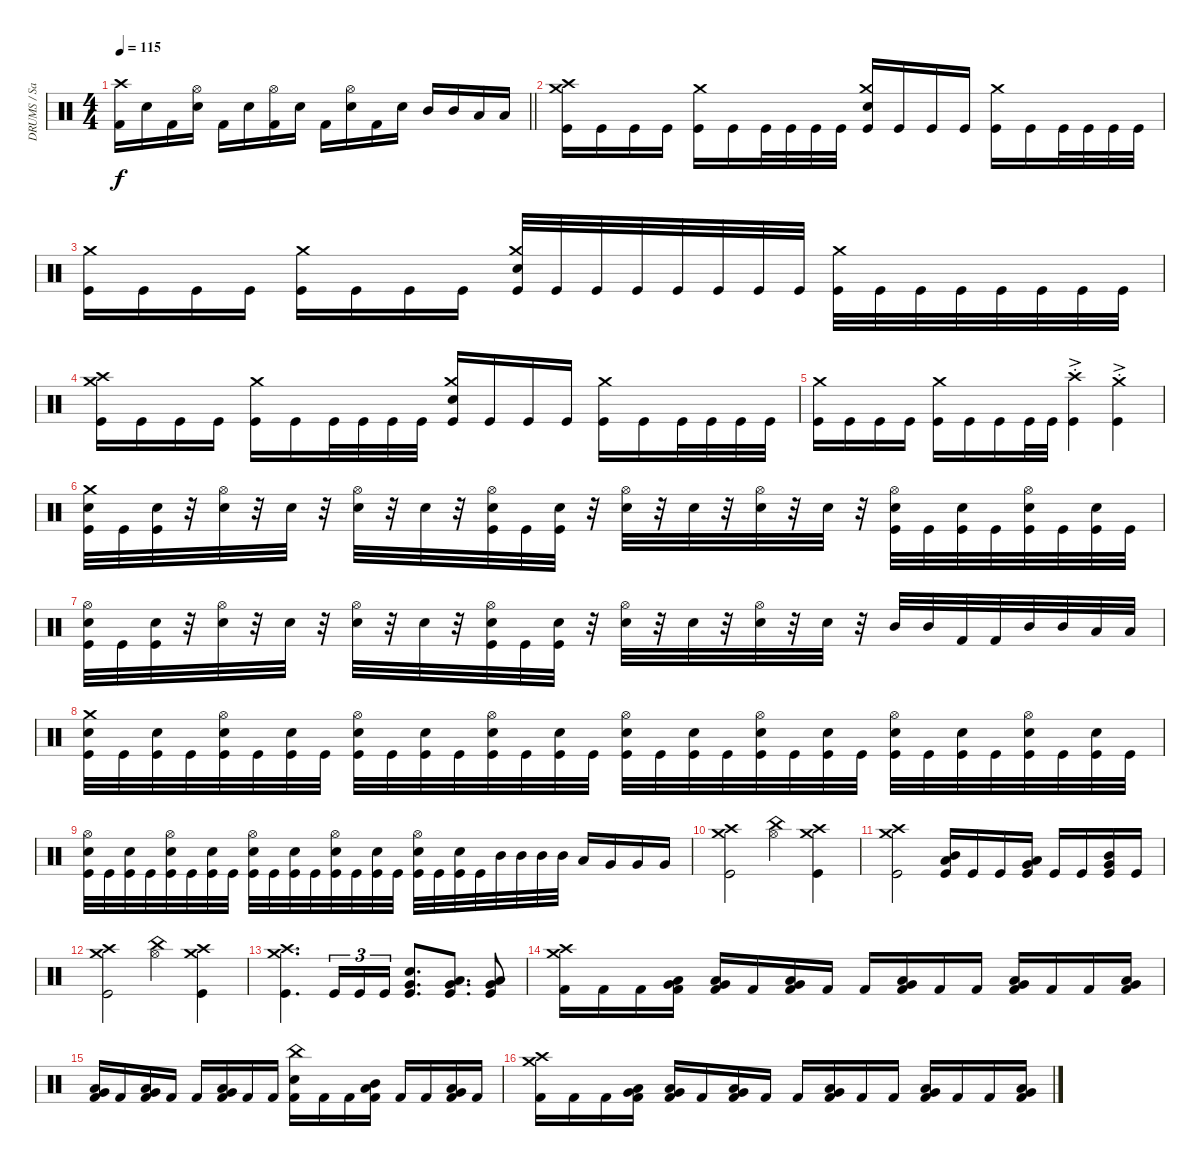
\track ("DRUMS / Sasha" "DRUMS / Sa") {instrument percussion}
\staff {score}
\articulation defaults
\ts (4 4)
\tempo 115
\clef neutral
\barLineRight lightlight
\ks c
("Crash high (hit)" "Kick (hit) 2").16{dy f} "Electric Snare (hit)".16 "Kick (hit) 2".16 ("Hi-Hat (open)" "Electric Snare (hit)").16 "Kick (hit) 2".16 "Electric Snare (hit)".16 ("Hi-Hat (open)" "Kick (hit) 2").16 "Electric Snare (hit)".16 "Kick (hit) 2".16 ("Hi-Hat (open)" "Electric Snare (hit)").16 "Kick (hit) 2".16 "Electric Snare (hit)".16 "Mid Tom (hit)".16 "Mid Tom (hit)".16 "Low Tom (hit)".16 "Low Tom (hit)".16 |
("Kick (hit)" "Crash high (hit)" "Crash medium (hit)").16 "Kick (hit)".16 "Kick (hit)".16 "Kick (hit)".16 ("Kick (hit)" "Crash medium (hit)").16 "Kick (hit)".16 "Kick (hit)".32 "Kick (hit)".32 "Kick (hit)".32 "Kick (hit)".32 ("Kick (hit)" "Crash medium (hit)" "Snare (hit) 2").16 "Kick (hit)".16 "Kick (hit)".16 "Kick (hit)".16 ("Kick (hit)" "Crash medium (hit)").16 "Kick (hit)".16 "Kick (hit)".32 "Kick (hit)".32 "Kick (hit)".32 "Kick (hit)".32 |
("Kick (hit)" "Crash medium (hit)").16 "Kick (hit)".16 "Kick (hit)".16 "Kick (hit)".16 ("Kick (hit)" "Crash medium (hit)").16 "Kick (hit)".16 "Kick (hit)".16 "Kick (hit)".16 ("Kick (hit)" "Crash medium (hit)" "Snare (hit) 2").32 "Kick (hit)".32 "Kick (hit)".32 "Kick (hit)".32 "Kick (hit)".32 "Kick (hit)".32 "Kick (hit)".32 "Kick (hit)".32 ("Kick (hit)" "Crash medium (hit)").32 "Kick (hit)".32 "Kick (hit)".32 "Kick (hit)".32 "Kick (hit)".32 "Kick (hit)".32 "Kick (hit)".32 "Kick (hit)".32 |
("Kick (hit)" "Crash high (hit)" "Crash medium (hit)").16 "Kick (hit)".16 "Kick (hit)".16 "Kick (hit)".16 ("Kick (hit)" "Crash medium (hit)").16 "Kick (hit)".16 "Kick (hit)".32 "Kick (hit)".32 "Kick (hit)".32 "Kick (hit)".32 ("Kick (hit)" "Crash medium (hit)" "Snare (hit) 2").16 "Kick (hit)".16 "Kick (hit)".16 "Kick (hit)".16 ("Kick (hit)" "Crash medium (hit)").16 "Kick (hit)".16 "Kick (hit)".32 "Kick (hit)".32 "Kick (hit)".32 "Kick (hit)".32 |
("Kick (hit)" "Crash medium (hit)").16 "Kick (hit)".16 "Kick (hit)".16 "Kick (hit)".16 ("Kick (hit)" "Crash medium (hit)").16 "Kick (hit)".16 "Kick (hit)".16 "Kick (hit)".32 "Kick (hit)".32 ("Kick (hit)" "Crash high (hit)"{ac st}).4 ("Kick (hit)"{ac st} "Crash medium (hit)"{ac st}).4 |
("Crash medium (hit)" "Snare (hit) 2" "Kick (hit)").32 "Kick (hit)".32 ("Snare (hit) 2" "Kick (hit)").32 r.32 ("Hi-Hat (open)" "Snare (hit) 2").32 r.32 "Snare (hit) 2".32 r.32 ("Hi-Hat (open)" "Snare (hit) 2").32 r.32 "Snare (hit) 2".32 r.32 ("Hi-Hat (open)" "Snare (hit) 2" "Kick (hit)").32 "Kick (hit)".32 ("Snare (hit) 2" "Kick (hit)").32 r.32 ("Hi-Hat (open)" "Snare (hit) 2").32 r.32 "Snare (hit) 2".32 r.32 ("Hi-Hat (open)" "Snare (hit) 2").32 r.32 "Snare (hit) 2".32 r.32 ("Hi-Hat (open)" "Snare (hit) 2" "Kick (hit)").32 "Kick (hit)".32 ("Snare (hit) 2" "Kick (hit)").32 "Kick (hit)".32 ("Hi-Hat (open)" "Snare (hit) 2" "Kick (hit)").32 "Kick (hit)".32 ("Snare (hit) 2" "Kick (hit)").32 "Kick (hit)".32 |
("Hi-Hat (open)" "Snare (hit) 2" "Kick (hit)").32 "Kick (hit)".32 ("Snare (hit) 2" "Kick (hit)").32 r.32 ("Hi-Hat (open)" "Snare (hit) 2").32 r.32 "Snare (hit) 2".32 r.32 ("Hi-Hat (open)" "Snare (hit) 2").32 r.32 "Snare (hit) 2".32 r.32 ("Hi-Hat (open)" "Snare (hit) 2" "Kick (hit)").32 "Kick (hit)".32 ("Snare (hit) 2" "Kick (hit)").32 r.32 ("Hi-Hat (open)" "Snare (hit) 2").32 r.32 "Snare (hit) 2".32 r.32 ("Hi-Hat (open)" "Snare (hit) 2").32 r.32 "Snare (hit) 2".32 r.32 "Mid Tom (hit)".32 "Mid Tom (hit)".32 "Kick (hit) 2".32 "Kick (hit) 2".32 "Mid Tom (hit)".32 "Mid Tom (hit)".32 "Low Tom (hit)".32 "Low Tom (hit)".32 |
("Crash medium (hit)" "Snare (hit) 2" "Kick (hit)").32 "Kick (hit)".32 ("Snare (hit) 2" "Kick (hit)").32 "Kick (hit)".32 ("Hi-Hat (open)" "Snare (hit) 2" "Kick (hit)").32 "Kick (hit)".32 ("Snare (hit) 2" "Kick (hit)").32 "Kick (hit)".32 ("Hi-Hat (open)" "Snare (hit) 2" "Kick (hit)").32 "Kick (hit)".32 ("Snare (hit) 2" "Kick (hit)").32 "Kick (hit)".32 ("Hi-Hat (open)" "Snare (hit) 2" "Kick (hit)").32 "Kick (hit)".32 ("Snare (hit) 2" "Kick (hit)").32 "Kick (hit)".32 ("Hi-Hat (open)" "Snare (hit) 2" "Kick (hit)").32 "Kick (hit)".32 ("Snare (hit) 2" "Kick (hit)").32 "Kick (hit)".32 ("Hi-Hat (open)" "Snare (hit) 2" "Kick (hit)").32 "Kick (hit)".32 ("Snare (hit) 2" "Kick (hit)").32 "Kick (hit)".32 ("Hi-Hat (open)" "Snare (hit) 2" "Kick (hit)").32 "Kick (hit)".32 ("Snare (hit) 2" "Kick (hit)").32 "Kick (hit)".32 ("Hi-Hat (open)" "Snare (hit) 2" "Kick (hit)").32 "Kick (hit)".32 ("Snare (hit) 2" "Kick (hit)").32 "Kick (hit)".32 |
("Snare (hit) 2" "Kick (hit)" "Hi-Hat (open)").32 "Kick (hit)".32 ("Snare (hit) 2" "Kick (hit)").32 "Kick (hit)".32 ("Hi-Hat (open)" "Snare (hit) 2" "Kick (hit)").32 "Kick (hit)".32 ("Snare (hit) 2" "Kick (hit)").32 "Kick (hit)".32 ("Hi-Hat (open)" "Snare (hit) 2" "Kick (hit)").32 "Kick (hit)".32 ("Snare (hit) 2" "Kick (hit)").32 "Kick (hit)".32 ("Hi-Hat (open)" "Snare (hit) 2" "Kick (hit)").32 "Kick (hit)".32 ("Snare (hit) 2" "Kick (hit)").32 "Kick (hit)".32 ("Hi-Hat (open)" "Snare (hit) 2" "Kick (hit)").32 "Kick (hit)".32 ("Snare (hit) 2" "Kick (hit)").32 "Kick (hit)".32 "Mid Tom (hit)".32 "Mid Tom (hit)".32 "Mid Tom (hit)".32 "Mid Tom (hit)".32 "Low Tom (hit)".16 "Very Low Tom (hit)".16 "Very Low Tom (hit)".16 "Very Low Tom (hit)".16 |
("Kick (hit)" "Crash medium (hit)" "Crash high (hit)").2 ("Hi-Hat (open)" "China (hit)").4 ("Kick (hit)" "Crash high (hit)" "Crash medium (hit)").4 |
("Kick (hit)" "Crash medium (hit)" "Crash high (hit)").2 ("Kick (hit)" "Low Tom (hit)" "Mid Tom (hit)").16 "Kick (hit)".16 "Kick (hit)".16 ("Kick (hit)" "Low Tom (hit)" "Very Low Tom (hit)").16 "Kick (hit)".16 "Kick (hit)".16 ("Kick (hit)" "Mid Tom (hit)" "Very Low Tom (hit)").16 "Kick (hit)".16 |
("Kick (hit)" "Crash medium (hit)" "Crash high (hit)").2 ("Hi-Hat (open)" "China (hit)").4 ("Kick (hit)" "Crash high (hit)" "Crash medium (hit)").4 |
("Kick (hit)" "Crash medium (hit)" "Crash high (hit)").4{d} "Kick (hit)".16{tu (3 2)} "Kick (hit)".16{tu (3 2)} "Kick (hit)".16{tu (3 2)} ("Electric Snare (hit)" "Very Low Tom (hit)" "Kick (hit)").8{d} ("Low Tom (hit)" "Very Low Tom (hit)" "Kick (hit)").8{d} ("Low Tom (hit)" "Very Low Tom (hit)" "Kick (hit)").8 |
("Crash medium (hit)" "Crash high (hit)" "Kick (hit) 2").16 "Kick (hit) 2".16 "Kick (hit) 2".16 ("Very Low Tom (hit)" "Low Tom (hit)" "Kick (hit) 2").16 ("Very Low Tom (hit)" "Low Tom (hit)" "Kick (hit) 2").16 "Kick (hit) 2".16 ("Very Low Tom (hit)" "Low Tom (hit)" "Kick (hit) 2").16 "Kick (hit) 2".16 "Kick (hit) 2".16 ("Very Low Tom (hit)" "Low Tom (hit)" "Kick (hit) 2").16 "Kick (hit) 2".16 "Kick (hit) 2".16 ("Very Low Tom (hit)" "Low Tom (hit)" "Kick (hit) 2").16 "Kick (hit) 2".16 "Kick (hit) 2".16 ("Very Low Tom (hit)" "Low Tom (hit)" "Kick (hit) 2").16 |
("Very Low Tom (hit)" "Low Tom (hit)" "Kick (hit) 2").16 "Kick (hit) 2".16 ("Very Low Tom (hit)" "Low Tom (hit)" "Kick (hit) 2").16 "Kick (hit) 2".16 "Kick (hit) 2".16 ("Very Low Tom (hit)" "Low Tom (hit)" "Kick (hit) 2").16 "Kick (hit) 2".16 "Kick (hit) 2".16 ("China (hit)" "Electric Snare (hit)" "Kick (hit) 2").16 "Kick (hit) 2".16 "Kick (hit) 2".16 ("Mid Tom (hit)" "Low Tom (hit)" "Kick (hit) 2").16 "Kick (hit) 2".16 "Kick (hit) 2".16 ("Low Tom (hit)" "Very Low Tom (hit)" "Kick (hit) 2").16 "Kick (hit) 2".16 |
("Crash medium (hit)" "Crash high (hit)" "Kick (hit) 2").16 "Kick (hit) 2".16 "Kick (hit) 2".16 ("Very Low Tom (hit)" "Low Tom (hit)" "Kick (hit) 2").16 ("Very Low Tom (hit)" "Low Tom (hit)" "Kick (hit) 2").16 "Kick (hit) 2".16 ("Very Low Tom (hit)" "Low Tom (hit)" "Kick (hit) 2").16 "Kick (hit) 2".16 "Kick (hit) 2".16 ("Very Low Tom (hit)" "Low Tom (hit)" "Kick (hit) 2").16 "Kick (hit) 2".16 "Kick (hit) 2".16 ("Very Low Tom (hit)" "Low Tom (hit)" "Kick (hit) 2").16 "Kick (hit) 2".16 "Kick (hit) 2".16 ("Very Low Tom (hit)" "Low Tom (hit)" "Kick (hit) 2").16
